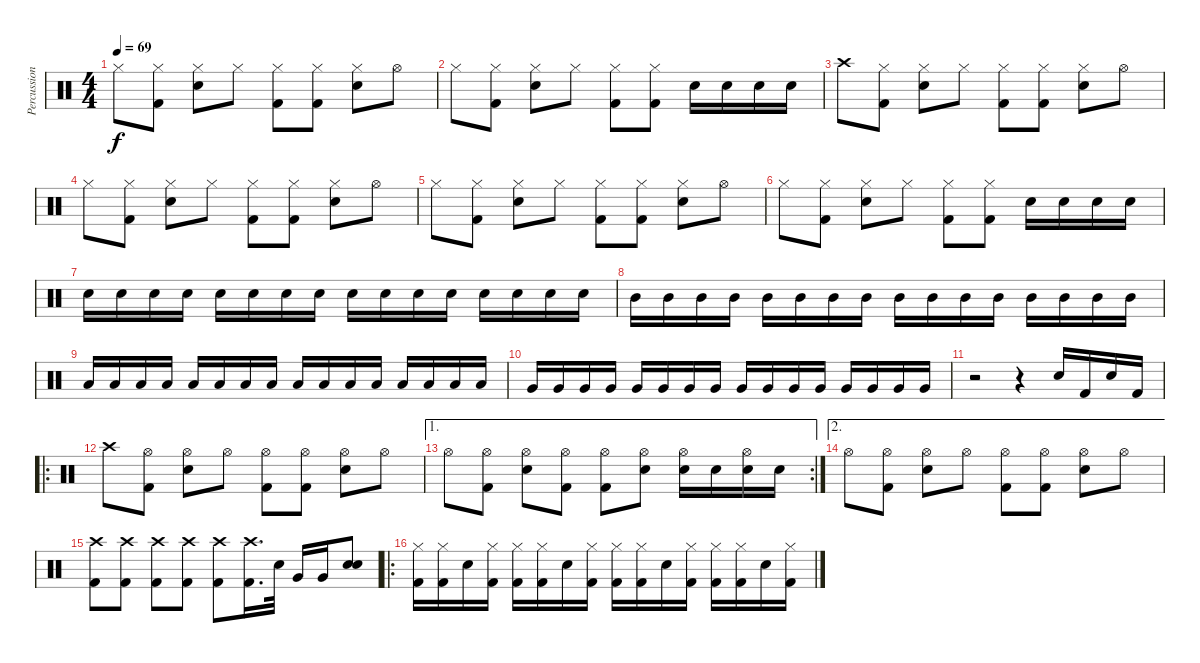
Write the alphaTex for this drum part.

\track ("Percussion" "Percussion") {instrument percussion}
\staff {score}
\articulation defaults
\ts (4 4)
\tempo 69
\clef neutral
\ks c "Hi-Hat (closed)".8{dy f}
("Hi-Hat (closed)" "Kick (hit) 2").8 ("Hi-Hat (closed)" "Electric Snare (hit)").8 "Hi-Hat (closed)".8 ("Hi-Hat (closed)" "Kick (hit) 2").8 ("Hi-Hat (closed)" "Kick (hit) 2").8 ("Hi-Hat (closed)" "Electric Snare (hit)").8 "Hi-Hat (open)".8 |
"Hi-Hat (closed)".8 ("Hi-Hat (closed)" "Kick (hit) 2").8 ("Hi-Hat (closed)" "Electric Snare (hit)").8 "Hi-Hat (closed)".8 ("Hi-Hat (closed)" "Kick (hit) 2").8 ("Hi-Hat (closed)" "Kick (hit) 2").8 "Electric Snare (hit)".16 "Electric Snare (hit)".16 "Electric Snare (hit)".16 "Electric Snare (hit)".16 |
"Crash high (hit)".8 ("Hi-Hat (closed)" "Kick (hit) 2").8 ("Hi-Hat (closed)" "Electric Snare (hit)").8 "Hi-Hat (closed)".8 ("Hi-Hat (closed)" "Kick (hit) 2").8 ("Hi-Hat (closed)" "Kick (hit) 2").8 ("Hi-Hat (closed)" "Electric Snare (hit)").8 "Hi-Hat (open)".8 |
"Hi-Hat (closed)".8 ("Hi-Hat (closed)" "Kick (hit) 2").8 ("Hi-Hat (closed)" "Electric Snare (hit)").8 "Hi-Hat (closed)".8 ("Hi-Hat (closed)" "Kick (hit) 2").8 ("Hi-Hat (closed)" "Kick (hit) 2").8 ("Hi-Hat (closed)" "Electric Snare (hit)").8 "Hi-Hat (open)".8 |
"Hi-Hat (closed)".8 ("Hi-Hat (closed)" "Kick (hit) 2").8 ("Hi-Hat (closed)" "Electric Snare (hit)").8 "Hi-Hat (closed)".8 ("Hi-Hat (closed)" "Kick (hit) 2").8 ("Hi-Hat (closed)" "Kick (hit) 2").8 ("Hi-Hat (closed)" "Electric Snare (hit)").8 "Hi-Hat (open)".8 |
"Hi-Hat (closed)".8 ("Hi-Hat (closed)" "Kick (hit) 2").8 ("Hi-Hat (closed)" "Electric Snare (hit)").8 "Hi-Hat (closed)".8 ("Hi-Hat (closed)" "Kick (hit) 2").8 ("Hi-Hat (closed)" "Kick (hit) 2").8 "Electric Snare (hit)".16 "Electric Snare (hit)".16 "Electric Snare (hit)".16 "Electric Snare (hit)".16 |
"Electric Snare (hit)".16 "Electric Snare (hit)".16 "Electric Snare (hit)".16 "Electric Snare (hit)".16 "Electric Snare (hit)".16 "Electric Snare (hit)".16 "Electric Snare (hit)".16 "Electric Snare (hit)".16 "Electric Snare (hit)".16 "Electric Snare (hit)".16 "Electric Snare (hit)".16 "Electric Snare (hit)".16 "Electric Snare (hit)".16 "Electric Snare (hit)".16 "Electric Snare (hit)".16 "Electric Snare (hit)".16 |
"Mid Tom (hit)".16 "Mid Tom (hit)".16 "Mid Tom (hit)".16 "Mid Tom (hit)".16 "Mid Tom (hit)".16 "Mid Tom (hit)".16 "Mid Tom (hit)".16 "Mid Tom (hit)".16 "Mid Tom (hit)".16 "Mid Tom (hit)".16 "Mid Tom (hit)".16 "Mid Tom (hit)".16 "Mid Tom (hit)".16 "Mid Tom (hit)".16 "Mid Tom (hit)".16 "Mid Tom (hit)".16 |
"Low Tom (hit)".16 "Low Tom (hit)".16 "Low Tom (hit)".16 "Low Tom (hit)".16 "Low Tom (hit)".16 "Low Tom (hit)".16 "Low Tom (hit)".16 "Low Tom (hit)".16 "Low Tom (hit)".16 "Low Tom (hit)".16 "Low Tom (hit)".16 "Low Tom (hit)".16 "Low Tom (hit)".16 "Low Tom (hit)".16 "Low Tom (hit)".16 "Low Tom (hit)".16 |
"Very Low Tom (hit)".16 "Very Low Tom (hit)".16 "Very Low Tom (hit)".16 "Very Low Tom (hit)".16 "Very Low Tom (hit)".16 "Very Low Tom (hit)".16 "Very Low Tom (hit)".16 "Very Low Tom (hit)".16 "Very Low Tom (hit)".16 "Very Low Tom (hit)".16 "Very Low Tom (hit)".16 "Very Low Tom (hit)".16 "Very Low Tom (hit)".16 "Very Low Tom (hit)".16 "Very Low Tom (hit)".16 "Very Low Tom (hit)".16 |
r.2 r.4 "Electric Snare (hit)".16 "Kick (hit) 2".16 "Electric Snare (hit)".16 "Kick (hit) 2".16 |
\ro "Crash high (hit)".8
("Hi-Hat (open)" "Kick (hit) 2").8 ("Hi-Hat (open)" "Electric Snare (hit)").8 "Hi-Hat (open)".8 ("Hi-Hat (open)" "Kick (hit) 2").8 ("Hi-Hat (open)" "Kick (hit) 2").8 ("Hi-Hat (open)" "Electric Snare (hit)").8 "Hi-Hat (open)".8 |
\ae 1
\rc 2 "Hi-Hat (open)".8
("Hi-Hat (open)" "Kick (hit) 2").8 ("Hi-Hat (open)" "Electric Snare (hit)").8 ("Hi-Hat (open)" "Kick (hit) 2").8 ("Hi-Hat (open)" "Kick (hit) 2").8 ("Hi-Hat (open)" "Electric Snare (hit)").8 ("Hi-Hat (open)" "Electric Snare (hit)").16 "Electric Snare (hit)".16 ("Hi-Hat (open)" "Electric Snare (hit)").16 "Electric Snare (hit)".16 |
\ae 2 "Hi-Hat (open)".8
("Hi-Hat (open)" "Kick (hit) 2").8 ("Hi-Hat (open)" "Electric Snare (hit)").8 "Hi-Hat (open)".8 ("Hi-Hat (open)" "Kick (hit) 2").8 ("Hi-Hat (open)" "Kick (hit) 2").8 ("Hi-Hat (open)" "Electric Snare (hit)").8 "Hi-Hat (open)".8 |
("Crash high (hit)" "Kick (hit) 2").8 ("Crash high (hit)" "Kick (hit) 2").8 ("Crash high (hit)" "Kick (hit) 2").8 ("Crash high (hit)" "Kick (hit) 2").8 ("Crash high (hit)" "Kick (hit) 2").8 ("Crash high (hit)" "Kick (hit) 2").16{d} "Electric Snare (hit)".32 "Very Low Tom (hit)".16 "Very Low Tom (hit)".16 ("Electric Snare (hit)" "Electric Snare (hit)").8 |
\ro
("Hi-Hat (closed)" "Kick (hit) 2").16 ("Hi-Hat (closed)" "Kick (hit) 2").16 "Electric Snare (hit)".16 ("Hi-Hat (closed)" "Kick (hit) 2").16 ("Hi-Hat (closed)" "Kick (hit) 2").16 ("Hi-Hat (closed)" "Kick (hit) 2").16 "Electric Snare (hit)".16 ("Hi-Hat (closed)" "Kick (hit) 2").16 ("Hi-Hat (closed)" "Kick (hit) 2").16 ("Hi-Hat (closed)" "Kick (hit) 2").16 "Electric Snare (hit)".16 ("Hi-Hat (closed)" "Kick (hit) 2").16 ("Hi-Hat (closed)" "Kick (hit) 2").16 ("Hi-Hat (closed)" "Kick (hit) 2").16 "Electric Snare (hit)".16 ("Hi-Hat (closed)" "Kick (hit) 2").16
